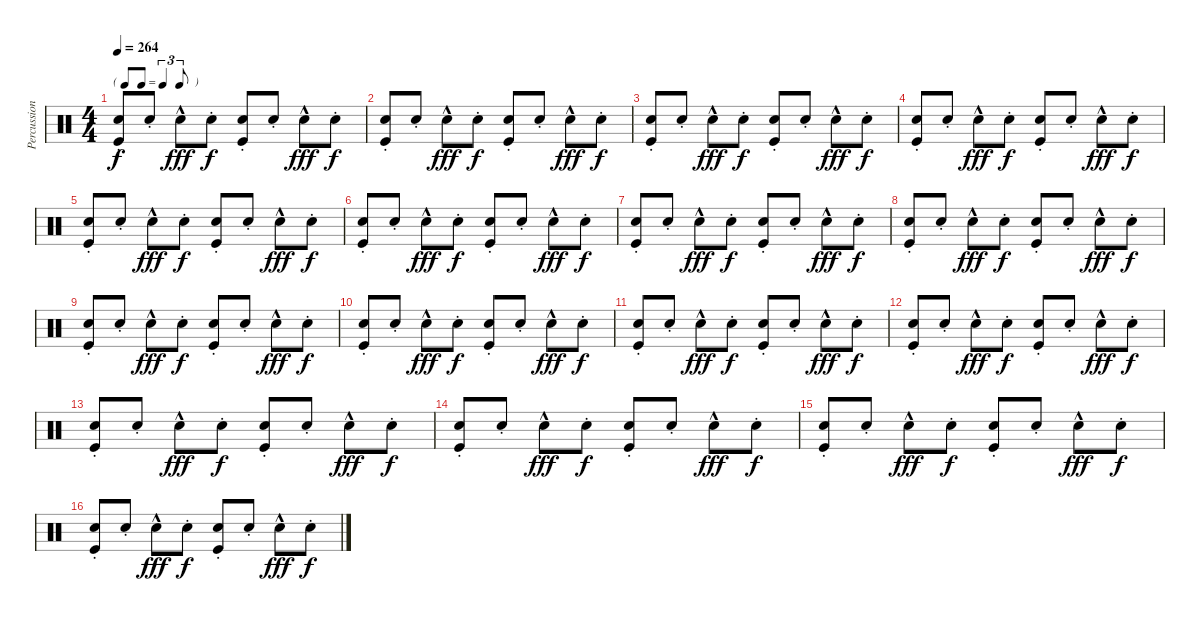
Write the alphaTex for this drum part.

\track ("Percussions" "Percussion") {instrument percussion}
\staff {score}
\articulation defaults
\ts (4 4)
\tf triplet8th
\tempo 264
\clef neutral
\ks c
("Snare (hit) 2"{st} "Kick (hit)").8{dy f} "Snare (hit) 2"{st}.8 "Snare (hit) 2"{hac}.8{dy fff} "Snare (hit) 2"{st}.8{dy f} ("Snare (hit) 2"{st} "Kick (hit)").8 "Snare (hit) 2"{st}.8 "Snare (hit) 2"{hac}.8{dy fff} "Snare (hit) 2"{st}.8{dy f} |
("Snare (hit) 2"{st} "Kick (hit)").8 "Snare (hit) 2"{st}.8 "Snare (hit) 2"{hac}.8{dy fff} "Snare (hit) 2"{st}.8{dy f} ("Snare (hit) 2"{st} "Kick (hit)").8 "Snare (hit) 2"{st}.8 "Snare (hit) 2"{hac}.8{dy fff} "Snare (hit) 2"{st}.8{dy f} |
("Snare (hit) 2"{st} "Kick (hit)").8 "Snare (hit) 2"{st}.8 "Snare (hit) 2"{hac}.8{dy fff} "Snare (hit) 2"{st}.8{dy f} ("Snare (hit) 2"{st} "Kick (hit)").8 "Snare (hit) 2"{st}.8 "Snare (hit) 2"{hac}.8{dy fff} "Snare (hit) 2"{st}.8{dy f} |
("Snare (hit) 2"{st} "Kick (hit)").8 "Snare (hit) 2"{st}.8 "Snare (hit) 2"{hac}.8{dy fff} "Snare (hit) 2"{st}.8{dy f} ("Snare (hit) 2"{st} "Kick (hit)").8 "Snare (hit) 2"{st}.8 "Snare (hit) 2"{hac}.8{dy fff} "Snare (hit) 2"{st}.8{dy f} |
("Snare (hit) 2"{st} "Kick (hit)").8 "Snare (hit) 2"{st}.8 "Snare (hit) 2"{hac}.8{dy fff} "Snare (hit) 2"{st}.8{dy f} ("Snare (hit) 2"{st} "Kick (hit)").8 "Snare (hit) 2"{st}.8 "Snare (hit) 2"{hac}.8{dy fff} "Snare (hit) 2"{st}.8{dy f} |
("Snare (hit) 2"{st} "Kick (hit)").8 "Snare (hit) 2"{st}.8 "Snare (hit) 2"{hac}.8{dy fff} "Snare (hit) 2"{st}.8{dy f} ("Snare (hit) 2"{st} "Kick (hit)").8 "Snare (hit) 2"{st}.8 "Snare (hit) 2"{hac}.8{dy fff} "Snare (hit) 2"{st}.8{dy f} |
("Snare (hit) 2"{st} "Kick (hit)").8 "Snare (hit) 2"{st}.8 "Snare (hit) 2"{hac}.8{dy fff} "Snare (hit) 2"{st}.8{dy f} ("Snare (hit) 2"{st} "Kick (hit)").8 "Snare (hit) 2"{st}.8 "Snare (hit) 2"{hac}.8{dy fff} "Snare (hit) 2"{st}.8{dy f} |
("Snare (hit) 2"{st} "Kick (hit)").8 "Snare (hit) 2"{st}.8 "Snare (hit) 2"{hac}.8{dy fff} "Snare (hit) 2"{st}.8{dy f} ("Snare (hit) 2"{st} "Kick (hit)").8 "Snare (hit) 2"{st}.8 "Snare (hit) 2"{hac}.8{dy fff} "Snare (hit) 2"{st}.8{dy f} |
("Snare (hit) 2"{st} "Kick (hit)").8 "Snare (hit) 2"{st}.8 "Snare (hit) 2"{hac}.8{dy fff} "Snare (hit) 2"{st}.8{dy f} ("Snare (hit) 2"{st} "Kick (hit)").8 "Snare (hit) 2"{st}.8 "Snare (hit) 2"{hac}.8{dy fff} "Snare (hit) 2"{st}.8{dy f} |
("Snare (hit) 2"{st} "Kick (hit)").8 "Snare (hit) 2"{st}.8 "Snare (hit) 2"{hac}.8{dy fff} "Snare (hit) 2"{st}.8{dy f} ("Snare (hit) 2"{st} "Kick (hit)").8 "Snare (hit) 2"{st}.8 "Snare (hit) 2"{hac}.8{dy fff} "Snare (hit) 2"{st}.8{dy f} |
("Snare (hit) 2"{st} "Kick (hit)").8 "Snare (hit) 2"{st}.8 "Snare (hit) 2"{hac}.8{dy fff} "Snare (hit) 2"{st}.8{dy f} ("Snare (hit) 2"{st} "Kick (hit)").8 "Snare (hit) 2"{st}.8 "Snare (hit) 2"{hac}.8{dy fff} "Snare (hit) 2"{st}.8{dy f} |
("Snare (hit) 2"{st} "Kick (hit)").8 "Snare (hit) 2"{st}.8 "Snare (hit) 2"{hac}.8{dy fff} "Snare (hit) 2"{st}.8{dy f} ("Snare (hit) 2"{st} "Kick (hit)").8 "Snare (hit) 2"{st}.8 "Snare (hit) 2"{hac}.8{dy fff} "Snare (hit) 2"{st}.8{dy f} |
("Snare (hit) 2"{st} "Kick (hit)").8 "Snare (hit) 2"{st}.8 "Snare (hit) 2"{hac}.8{dy fff} "Snare (hit) 2"{st}.8{dy f} ("Snare (hit) 2"{st} "Kick (hit)").8 "Snare (hit) 2"{st}.8 "Snare (hit) 2"{hac}.8{dy fff} "Snare (hit) 2"{st}.8{dy f} |
("Snare (hit) 2"{st} "Kick (hit)").8 "Snare (hit) 2"{st}.8 "Snare (hit) 2"{hac}.8{dy fff} "Snare (hit) 2"{st}.8{dy f} ("Snare (hit) 2"{st} "Kick (hit)").8 "Snare (hit) 2"{st}.8 "Snare (hit) 2"{hac}.8{dy fff} "Snare (hit) 2"{st}.8{dy f} |
("Snare (hit) 2"{st} "Kick (hit)").8 "Snare (hit) 2"{st}.8 "Snare (hit) 2"{hac}.8{dy fff} "Snare (hit) 2"{st}.8{dy f} ("Snare (hit) 2"{st} "Kick (hit)").8 "Snare (hit) 2"{st}.8 "Snare (hit) 2"{hac}.8{dy fff} "Snare (hit) 2"{st}.8{dy f} |
("Snare (hit) 2"{st} "Kick (hit)").8 "Snare (hit) 2"{st}.8 "Snare (hit) 2"{hac}.8{dy fff} "Snare (hit) 2"{st}.8{dy f} ("Snare (hit) 2"{st} "Kick (hit)").8 "Snare (hit) 2"{st}.8 "Snare (hit) 2"{hac}.8{dy fff} "Snare (hit) 2"{st}.8{dy f}
